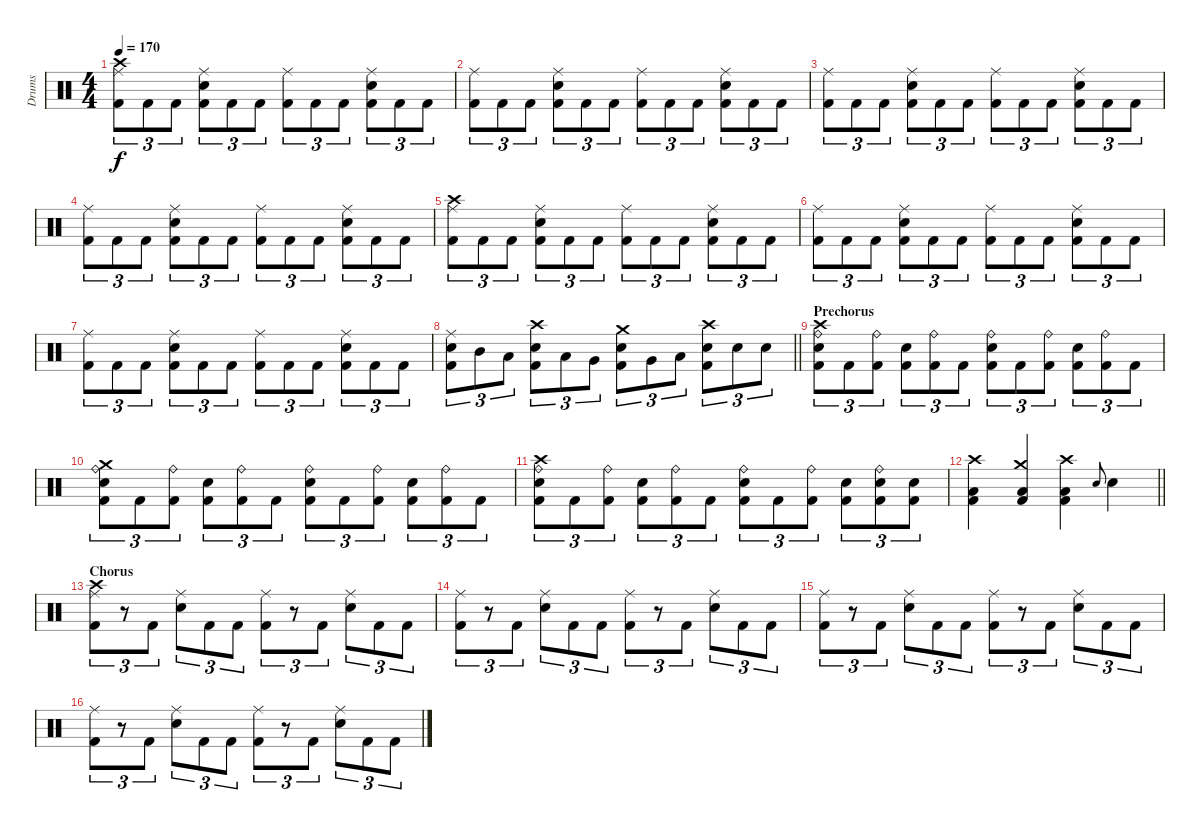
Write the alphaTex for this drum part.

\track ("Drums" "Drums") {instrument percussion}
\staff {score}
\articulation defaults
\ts (4 4)
\tempo 170
\clef neutral
\ks c
("Crash high (hit)" "Ride (middle)" "Kick (hit) 2").8{tu (3 2) dy f} "Kick (hit) 2".8{tu (3 2)} "Kick (hit) 2".8{tu (3 2)} ("Ride (middle)" "Snare (hit) 2" "Kick (hit) 2").8{tu (3 2)} "Kick (hit) 2".8{tu (3 2)} "Kick (hit) 2".8{tu (3 2)} ("Ride (middle)" "Kick (hit) 2").8{tu (3 2)} "Kick (hit) 2".8{tu (3 2)} "Kick (hit) 2".8{tu (3 2)} ("Ride (middle)" "Snare (hit) 2" "Kick (hit) 2").8{tu (3 2)} "Kick (hit) 2".8{tu (3 2)} "Kick (hit) 2".8{tu (3 2)} |
("Ride (middle)" "Kick (hit) 2").8{tu (3 2)} "Kick (hit) 2".8{tu (3 2)} "Kick (hit) 2".8{tu (3 2)} ("Ride (middle)" "Snare (hit) 2" "Kick (hit) 2").8{tu (3 2)} "Kick (hit) 2".8{tu (3 2)} "Kick (hit) 2".8{tu (3 2)} ("Ride (middle)" "Kick (hit) 2").8{tu (3 2)} "Kick (hit) 2".8{tu (3 2)} "Kick (hit) 2".8{tu (3 2)} ("Ride (middle)" "Snare (hit) 2" "Kick (hit) 2").8{tu (3 2)} "Kick (hit) 2".8{tu (3 2)} "Kick (hit) 2".8{tu (3 2)} |
("Ride (middle)" "Kick (hit) 2").8{tu (3 2)} "Kick (hit) 2".8{tu (3 2)} "Kick (hit) 2".8{tu (3 2)} ("Ride (middle)" "Snare (hit) 2" "Kick (hit) 2").8{tu (3 2)} "Kick (hit) 2".8{tu (3 2)} "Kick (hit) 2".8{tu (3 2)} ("Ride (middle)" "Kick (hit) 2").8{tu (3 2)} "Kick (hit) 2".8{tu (3 2)} "Kick (hit) 2".8{tu (3 2)} ("Ride (middle)" "Snare (hit) 2" "Kick (hit) 2").8{tu (3 2)} "Kick (hit) 2".8{tu (3 2)} "Kick (hit) 2".8{tu (3 2)} |
("Ride (middle)" "Kick (hit) 2").8{tu (3 2)} "Kick (hit) 2".8{tu (3 2)} "Kick (hit) 2".8{tu (3 2)} ("Ride (middle)" "Snare (hit) 2" "Kick (hit) 2").8{tu (3 2)} "Kick (hit) 2".8{tu (3 2)} "Kick (hit) 2".8{tu (3 2)} ("Ride (middle)" "Kick (hit) 2").8{tu (3 2)} "Kick (hit) 2".8{tu (3 2)} "Kick (hit) 2".8{tu (3 2)} ("Ride (middle)" "Snare (hit) 2" "Kick (hit) 2").8{tu (3 2)} "Kick (hit) 2".8{tu (3 2)} "Kick (hit) 2".8{tu (3 2)} |
("Crash high (hit)" "Ride (middle)" "Kick (hit) 2").8{tu (3 2)} "Kick (hit) 2".8{tu (3 2)} "Kick (hit) 2".8{tu (3 2)} ("Ride (middle)" "Snare (hit) 2" "Kick (hit) 2").8{tu (3 2)} "Kick (hit) 2".8{tu (3 2)} "Kick (hit) 2".8{tu (3 2)} ("Ride (middle)" "Kick (hit) 2").8{tu (3 2)} "Kick (hit) 2".8{tu (3 2)} "Kick (hit) 2".8{tu (3 2)} ("Ride (middle)" "Snare (hit) 2" "Kick (hit) 2").8{tu (3 2)} "Kick (hit) 2".8{tu (3 2)} "Kick (hit) 2".8{tu (3 2)} |
("Ride (middle)" "Kick (hit) 2").8{tu (3 2)} "Kick (hit) 2".8{tu (3 2)} "Kick (hit) 2".8{tu (3 2)} ("Ride (middle)" "Snare (hit) 2" "Kick (hit) 2").8{tu (3 2)} "Kick (hit) 2".8{tu (3 2)} "Kick (hit) 2".8{tu (3 2)} ("Ride (middle)" "Kick (hit) 2").8{tu (3 2)} "Kick (hit) 2".8{tu (3 2)} "Kick (hit) 2".8{tu (3 2)} ("Ride (middle)" "Snare (hit) 2" "Kick (hit) 2").8{tu (3 2)} "Kick (hit) 2".8{tu (3 2)} "Kick (hit) 2".8{tu (3 2)} |
("Ride (middle)" "Kick (hit) 2").8{tu (3 2)} "Kick (hit) 2".8{tu (3 2)} "Kick (hit) 2".8{tu (3 2)} ("Ride (middle)" "Snare (hit) 2" "Kick (hit) 2").8{tu (3 2)} "Kick (hit) 2".8{tu (3 2)} "Kick (hit) 2".8{tu (3 2)} ("Ride (middle)" "Kick (hit) 2").8{tu (3 2)} "Kick (hit) 2".8{tu (3 2)} "Kick (hit) 2".8{tu (3 2)} ("Ride (middle)" "Snare (hit) 2" "Kick (hit) 2").8{tu (3 2)} "Kick (hit) 2".8{tu (3 2)} "Kick (hit) 2".8{tu (3 2)} |
\barLineRight lightlight
("Ride (middle)" "Snare (hit) 2" "Kick (hit) 2").8{tu (3 2)} "Mid Tom (hit)".8{tu (3 2)} "Low Tom (hit)".8{tu (3 2)} ("Crash high (hit)" "Snare (hit) 2" "Kick (hit) 2").8{tu (3 2)} "Low Tom (hit)".8{tu (3 2)} "Very Low Tom (hit)".8{tu (3 2)} ("Crash medium (hit)" "Snare (hit) 2" "Kick (hit) 2").8{tu (3 2)} "Very Low Tom (hit)".8{tu (3 2)} "Low Floor Tom (hit)".8{tu (3 2)} ("Crash high (hit)" "Snare (hit) 2" "Kick (hit) 2").8{tu (3 2)} "Snare (hit) 2".8{tu (3 2)} "Snare (hit) 2".8{tu (3 2)} |
\section ("" "Prechorus ")
("Crash high (hit)" "Ride (bell)" "Snare (hit) 2" "Kick (hit) 2").8{tu (3 2)} "Kick (hit) 2".8{tu (3 2)} ("Ride (bell)" "Kick (hit) 2").8{tu (3 2)} ("Snare (hit) 2" "Kick (hit) 2").8{tu (3 2)} ("Ride (bell)" "Kick (hit) 2").8{tu (3 2)} "Kick (hit) 2".8{tu (3 2)} ("Ride (bell)" "Snare (hit) 2" "Kick (hit) 2").8{tu (3 2)} "Kick (hit) 2".8{tu (3 2)} ("Ride (bell)" "Kick (hit) 2").8{tu (3 2)} ("Snare (hit) 2" "Kick (hit) 2").8{tu (3 2)} ("Ride (bell)" "Kick (hit) 2").8{tu (3 2)} "Kick (hit) 2".8{tu (3 2)} |
("Crash medium (hit)" "Ride (bell)" "Snare (hit) 2" "Kick (hit) 2").8{tu (3 2)} "Kick (hit) 2".8{tu (3 2)} ("Ride (bell)" "Kick (hit) 2").8{tu (3 2)} ("Snare (hit) 2" "Kick (hit) 2").8{tu (3 2)} ("Ride (bell)" "Kick (hit) 2").8{tu (3 2)} "Kick (hit) 2".8{tu (3 2)} ("Ride (bell)" "Snare (hit) 2" "Kick (hit) 2").8{tu (3 2)} "Kick (hit) 2".8{tu (3 2)} ("Ride (bell)" "Kick (hit) 2").8{tu (3 2)} ("Snare (hit) 2" "Kick (hit) 2").8{tu (3 2)} ("Ride (bell)" "Kick (hit) 2").8{tu (3 2)} "Kick (hit) 2".8{tu (3 2)} |
("Crash high (hit)" "Ride (bell)" "Snare (hit) 2" "Kick (hit) 2").8{tu (3 2)} "Kick (hit) 2".8{tu (3 2)} ("Ride (bell)" "Kick (hit) 2").8{tu (3 2)} ("Snare (hit) 2" "Kick (hit) 2").8{tu (3 2)} ("Ride (bell)" "Kick (hit) 2").8{tu (3 2)} "Kick (hit) 2".8{tu (3 2)} ("Ride (bell)" "Snare (hit) 2" "Kick (hit) 2").8{tu (3 2)} "Kick (hit) 2".8{tu (3 2)} ("Ride (bell)" "Kick (hit) 2").8{tu (3 2)} ("Snare (hit) 2" "Kick (hit) 2").8{tu (3 2)} ("Ride (bell)" "Snare (hit) 2" "Kick (hit) 2").8{tu (3 2)} ("Snare (hit) 2" "Kick (hit) 2").8{tu (3 2)} |
\barLineRight lightlight
("Crash high (hit)" "Low Floor Tom (hit)" "Kick (hit) 2").4 ("Crash medium (hit)" "Low Floor Tom (hit)" "Kick (hit) 2").4 ("Crash high (hit)" "Low Floor Tom (hit)" "Kick (hit) 2").4 "Snare (hit) 2".8{gr onbeat} "Snare (hit) 2".4 |
\section ("" "Chorus")
("Crash high (hit)" "Ride (middle)" "Kick (hit) 2").8{tu (3 2)} r.8{tu (3 2)} "Kick (hit) 2".8{tu (3 2)} ("Ride (middle)" "Snare (hit) 2").8{tu (3 2)} "Kick (hit) 2".8{tu (3 2)} "Kick (hit) 2".8{tu (3 2)} ("Ride (middle)" "Kick (hit) 2").8{tu (3 2)} r.8{tu (3 2)} "Kick (hit) 2".8{tu (3 2)} ("Ride (middle)" "Snare (hit) 2").8{tu (3 2)} "Kick (hit) 2".8{tu (3 2)} "Kick (hit) 2".8{tu (3 2)} |
("Ride (middle)" "Kick (hit) 2").8{tu (3 2)} r.8{tu (3 2)} "Kick (hit) 2".8{tu (3 2)} ("Ride (middle)" "Snare (hit) 2").8{tu (3 2)} "Kick (hit) 2".8{tu (3 2)} "Kick (hit) 2".8{tu (3 2)} ("Ride (middle)" "Kick (hit) 2").8{tu (3 2)} r.8{tu (3 2)} "Kick (hit) 2".8{tu (3 2)} ("Ride (middle)" "Snare (hit) 2").8{tu (3 2)} "Kick (hit) 2".8{tu (3 2)} "Kick (hit) 2".8{tu (3 2)} |
("Ride (middle)" "Kick (hit) 2").8{tu (3 2)} r.8{tu (3 2)} "Kick (hit) 2".8{tu (3 2)} ("Ride (middle)" "Snare (hit) 2").8{tu (3 2)} "Kick (hit) 2".8{tu (3 2)} "Kick (hit) 2".8{tu (3 2)} ("Ride (middle)" "Kick (hit) 2").8{tu (3 2)} r.8{tu (3 2)} "Kick (hit) 2".8{tu (3 2)} ("Ride (middle)" "Snare (hit) 2").8{tu (3 2)} "Kick (hit) 2".8{tu (3 2)} "Kick (hit) 2".8{tu (3 2)} |
("Ride (middle)" "Kick (hit) 2").8{tu (3 2)} r.8{tu (3 2)} "Kick (hit) 2".8{tu (3 2)} ("Ride (middle)" "Snare (hit) 2").8{tu (3 2)} "Kick (hit) 2".8{tu (3 2)} "Kick (hit) 2".8{tu (3 2)} ("Ride (middle)" "Kick (hit) 2").8{tu (3 2)} r.8{tu (3 2)} "Kick (hit) 2".8{tu (3 2)} ("Ride (middle)" "Snare (hit) 2").8{tu (3 2)} "Kick (hit) 2".8{tu (3 2)} "Kick (hit) 2".8{tu (3 2)}
